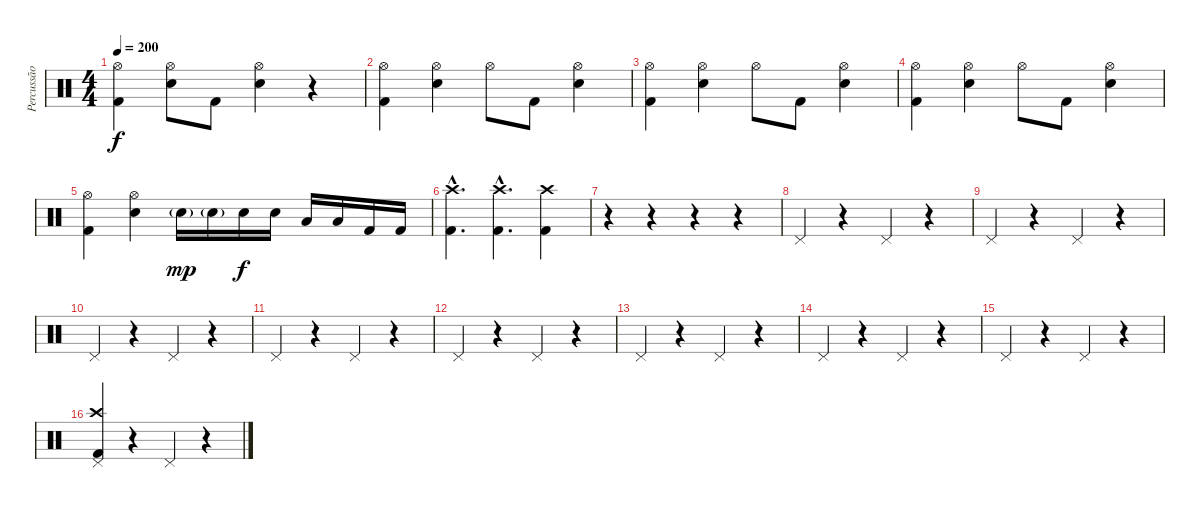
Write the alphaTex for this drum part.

\track ("Percussão" "Percussão") {instrument percussion}
\staff {score}
\articulation defaults
\ts (4 4)
\tempo 200
\clef neutral
\ks c
("Hi-Hat (open)" "Kick (hit) 2").4{dy f} ("Hi-Hat (open)" "Electric Snare (hit)").8 "Kick (hit) 2".8 ("Hi-Hat (open)" "Electric Snare (hit)").4 r.4 |
("Hi-Hat (open)" "Kick (hit) 2").4 ("Hi-Hat (open)" "Electric Snare (hit)").4 "Hi-Hat (open)".8 "Kick (hit) 2".8 ("Hi-Hat (open)" "Electric Snare (hit)").4 |
("Hi-Hat (open)" "Kick (hit) 2").4 ("Hi-Hat (open)" "Electric Snare (hit)").4 "Hi-Hat (open)".8 "Kick (hit) 2".8 ("Hi-Hat (open)" "Electric Snare (hit)").4 |
("Hi-Hat (open)" "Kick (hit) 2").4 ("Hi-Hat (open)" "Electric Snare (hit)").4 "Hi-Hat (open)".8 "Kick (hit) 2".8 ("Hi-Hat (open)" "Electric Snare (hit)").4 |
("Hi-Hat (open)" "Kick (hit) 2").4 ("Hi-Hat (open)" "Electric Snare (hit)").4 "Electric Snare (hit)"{g}.16{dy mp} "Electric Snare (hit)"{g}.16 "Electric Snare (hit)".16{dy f} "Electric Snare (hit)".16 "Low Tom (hit)".16 "Low Tom (hit)".16 "Kick (hit) 2".16 "Kick (hit) 2".16 |
("Crash high (hit)"{hac} "Kick (hit) 2"{hac}).4{d} ("Crash high (hit)"{hac} "Kick (hit) 2"{hac}).4{d} ("Crash high (hit)" "Kick (hit) 2").4 |
r.4 r.4 r.4 r.4 |
"Pedal Hi-Hat (hit)".4 r.4 "Pedal Hi-Hat (hit)".4 r.4 |
"Pedal Hi-Hat (hit)".4 r.4 "Pedal Hi-Hat (hit)".4 r.4 |
"Pedal Hi-Hat (hit)".4 r.4 "Pedal Hi-Hat (hit)".4 r.4 |
"Pedal Hi-Hat (hit)".4 r.4 "Pedal Hi-Hat (hit)".4 r.4 |
"Pedal Hi-Hat (hit)".4 r.4 "Pedal Hi-Hat (hit)".4 r.4 |
"Pedal Hi-Hat (hit)".4 r.4 "Pedal Hi-Hat (hit)".4 r.4 |
"Pedal Hi-Hat (hit)".4 r.4 "Pedal Hi-Hat (hit)".4 r.4 |
"Pedal Hi-Hat (hit)".4 r.4 "Pedal Hi-Hat (hit)".4 r.4 |
("Pedal Hi-Hat (hit)" "Crash high (hit)" "Kick (hit) 2").4 r.4 "Pedal Hi-Hat (hit)".4 r.4
